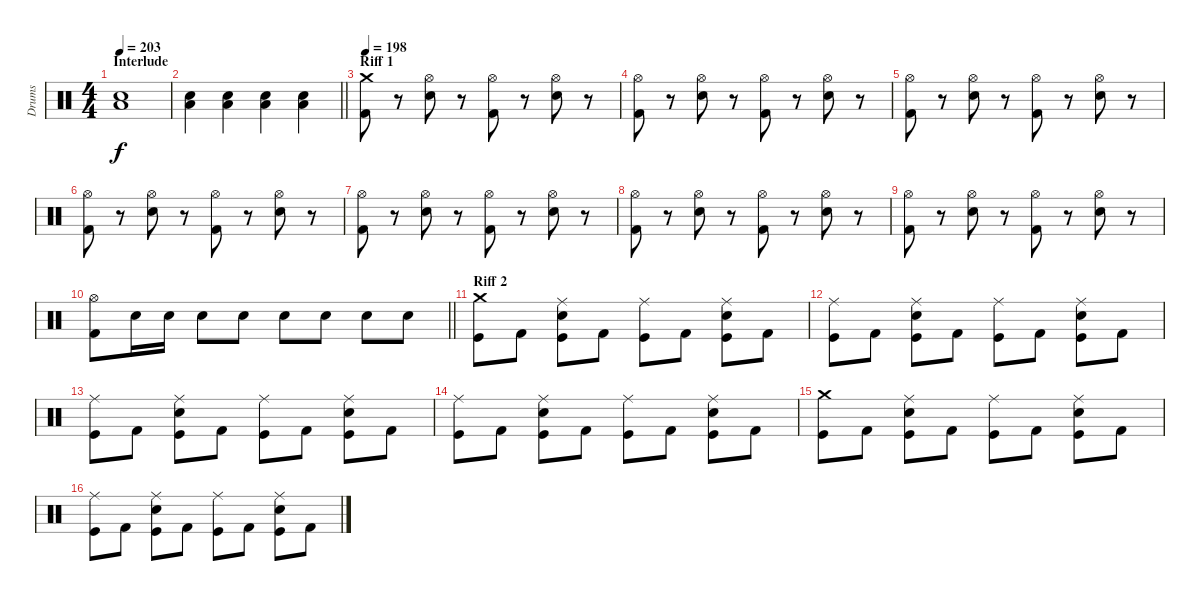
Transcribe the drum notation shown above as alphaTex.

\track ("Drums" "Drums") {instrument percussion}
\staff {score}
\articulation defaults
\ts (4 4)
\section ("" "Interlude")
\tempo 203
\clef neutral
\ks c
("Low Tom (hit)" "Electric Snare (hit)").1{dy f} |
\barLineRight lightlight
("Low Tom (hit)" "Electric Snare (hit)").4 ("Low Tom (hit)" "Electric Snare (hit)").4 ("Low Tom (hit)" "Electric Snare (hit)").4 ("Low Tom (hit)" "Electric Snare (hit)").4 |
\section ("" "Riff 1")
\tempo 198
("Crash medium (hit)" "Kick (hit) 2").8 r.8 ("Hi-Hat (open)" "Electric Snare (hit)").8 r.8 ("Hi-Hat (open)" "Kick (hit) 2").8 r.8 ("Hi-Hat (open)" "Electric Snare (hit)").8 r.8 |
("Hi-Hat (open)" "Kick (hit) 2").8 r.8 ("Hi-Hat (open)" "Electric Snare (hit)").8 r.8 ("Hi-Hat (open)" "Kick (hit) 2").8 r.8 ("Hi-Hat (open)" "Electric Snare (hit)").8 r.8 |
("Hi-Hat (open)" "Kick (hit) 2").8 r.8 ("Hi-Hat (open)" "Electric Snare (hit)").8 r.8 ("Hi-Hat (open)" "Kick (hit) 2").8 r.8 ("Hi-Hat (open)" "Electric Snare (hit)").8 r.8 |
("Hi-Hat (open)" "Kick (hit) 2").8 r.8 ("Hi-Hat (open)" "Electric Snare (hit)").8 r.8 ("Hi-Hat (open)" "Kick (hit) 2").8 r.8 ("Hi-Hat (open)" "Electric Snare (hit)").8 r.8 |
("Hi-Hat (open)" "Kick (hit) 2").8 r.8 ("Hi-Hat (open)" "Electric Snare (hit)").8 r.8 ("Hi-Hat (open)" "Kick (hit) 2").8 r.8 ("Hi-Hat (open)" "Electric Snare (hit)").8 r.8 |
("Hi-Hat (open)" "Kick (hit) 2").8 r.8 ("Hi-Hat (open)" "Electric Snare (hit)").8 r.8 ("Hi-Hat (open)" "Kick (hit) 2").8 r.8 ("Hi-Hat (open)" "Electric Snare (hit)").8 r.8 |
("Hi-Hat (open)" "Kick (hit) 2").8 r.8 ("Hi-Hat (open)" "Electric Snare (hit)").8 r.8 ("Hi-Hat (open)" "Kick (hit) 2").8 r.8 ("Hi-Hat (open)" "Electric Snare (hit)").8 r.8 |
\barLineRight lightlight
("Hi-Hat (open)" "Kick (hit) 2").8 "Electric Snare (hit)".16 "Electric Snare (hit)".16 "Electric Snare (hit)".8 "Electric Snare (hit)".8 "Electric Snare (hit)".8 "Electric Snare (hit)".8 "Electric Snare (hit)".8 "Electric Snare (hit)".8 |
\section ("" "Riff 2")
("Crash medium (hit)" "Kick (hit)").8 "Kick (hit) 2".8 ("Ride (middle)" "Electric Snare (hit)" "Kick (hit)").8 "Kick (hit) 2".8 ("Ride (middle)" "Kick (hit)").8 "Kick (hit) 2".8 ("Ride (middle)" "Electric Snare (hit)" "Kick (hit)").8 "Kick (hit) 2".8 |
("Ride (middle)" "Kick (hit)").8 "Kick (hit) 2".8 ("Ride (middle)" "Electric Snare (hit)" "Kick (hit)").8 "Kick (hit) 2".8 ("Ride (middle)" "Kick (hit)").8 "Kick (hit) 2".8 ("Ride (middle)" "Electric Snare (hit)" "Kick (hit)").8 "Kick (hit) 2".8 |
("Ride (middle)" "Kick (hit)").8 "Kick (hit) 2".8 ("Ride (middle)" "Electric Snare (hit)" "Kick (hit)").8 "Kick (hit) 2".8 ("Ride (middle)" "Kick (hit)").8 "Kick (hit) 2".8 ("Ride (middle)" "Electric Snare (hit)" "Kick (hit)").8 "Kick (hit) 2".8 |
("Ride (middle)" "Kick (hit)").8 "Kick (hit) 2".8 ("Ride (middle)" "Electric Snare (hit)" "Kick (hit)").8 "Kick (hit) 2".8 ("Ride (middle)" "Kick (hit)").8 "Kick (hit) 2".8 ("Ride (middle)" "Electric Snare (hit)" "Kick (hit)").8 "Kick (hit) 2".8 |
("Crash medium (hit)" "Kick (hit)").8 "Kick (hit) 2".8 ("Ride (middle)" "Electric Snare (hit)" "Kick (hit)").8 "Kick (hit) 2".8 ("Ride (middle)" "Kick (hit)").8 "Kick (hit) 2".8 ("Ride (middle)" "Electric Snare (hit)" "Kick (hit)").8 "Kick (hit) 2".8 |
("Ride (middle)" "Kick (hit)").8 "Kick (hit) 2".8 ("Ride (middle)" "Electric Snare (hit)" "Kick (hit)").8 "Kick (hit) 2".8 ("Ride (middle)" "Kick (hit)").8 "Kick (hit) 2".8 ("Ride (middle)" "Electric Snare (hit)" "Kick (hit)").8 "Kick (hit) 2".8
